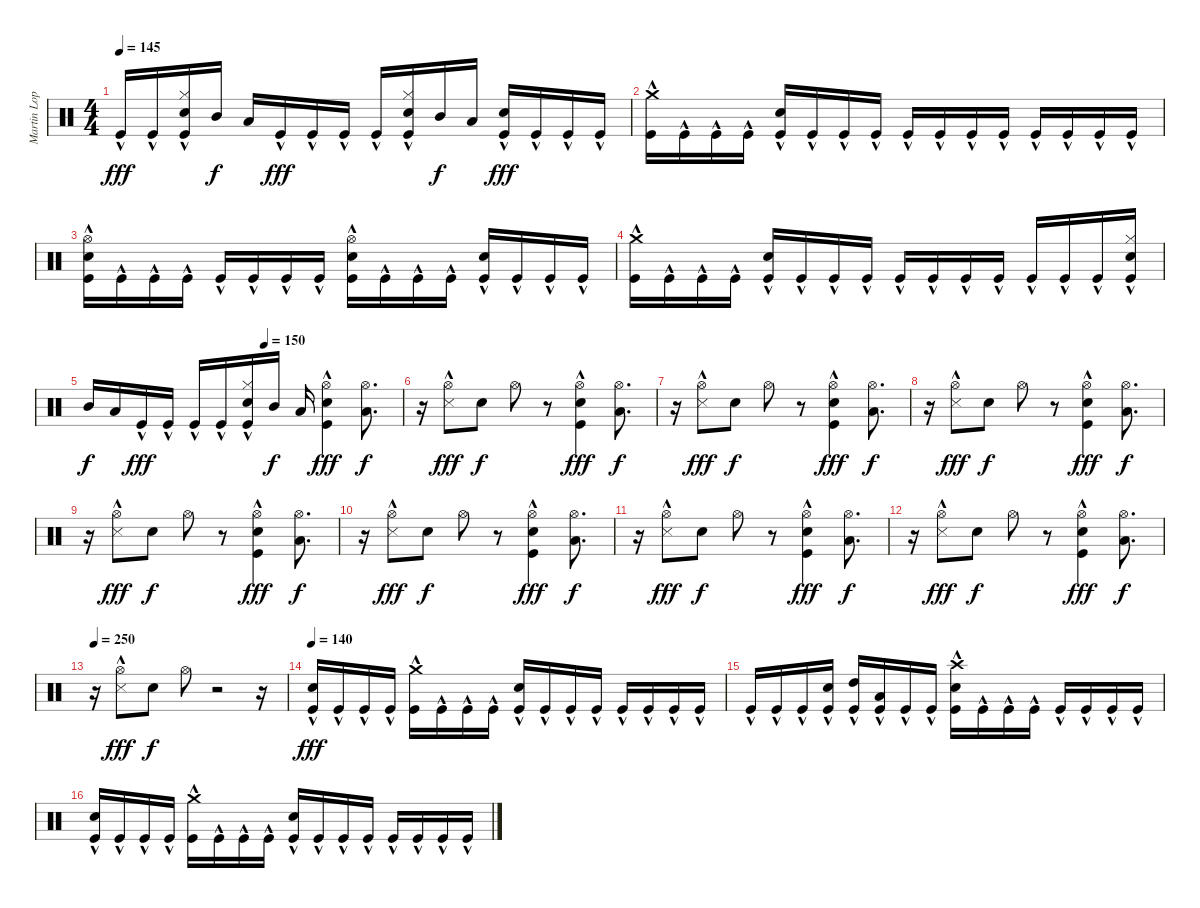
\track ("Martin Lopez" "Martin Lop") {instrument percussion}
\staff {score}
\articulation defaults
\ts (4 4)
\tempo 145
\clef neutral
\ks c "Kick (hit)"{hac}.16{dy fff} "Kick (hit)"{hac}.16
("Hi-Hat (closed)" "Electric Snare (hit)" "Kick (hit)"{hac}).16 "Mid Tom (hit)".16{dy f} "Low Tom (hit)".16 "Kick (hit)"{hac}.16{dy fff} "Kick (hit)"{hac}.16 "Kick (hit)"{hac}.16 "Kick (hit)"{hac}.16 ("Hi-Hat (closed)" "Electric Snare (hit)" "Kick (hit)"{hac}).16 "Mid Tom (hit)".16{dy f} "Low Tom (hit)".16 ("Electric Snare (hit)" "Kick (hit)"{hac}).16{dy fff} "Kick (hit)"{hac}.16 "Kick (hit)"{hac}.16 "Kick (hit)"{hac}.16 |
("Crash medium (hit)" "Kick (hit)"{hac}).16 "Kick (hit)"{hac}.16 "Kick (hit)"{hac}.16 "Kick (hit)"{hac}.16 ("Electric Snare (hit)" "Kick (hit)"{hac}).16 "Kick (hit)"{hac}.16 "Kick (hit)"{hac}.16 "Kick (hit)"{hac}.16 "Kick (hit)"{hac}.16 "Kick (hit)"{hac}.16 "Kick (hit)"{hac}.16 "Kick (hit)"{hac}.16 "Kick (hit)"{hac}.16 "Kick (hit)"{hac}.16 "Kick (hit)"{hac}.16 "Kick (hit)"{hac}.16 |
("Hi-Hat (open)" "Electric Snare (hit)" "Kick (hit)"{hac}).16 "Kick (hit)"{hac}.16 "Kick (hit)"{hac}.16 "Kick (hit)"{hac}.16 "Kick (hit)"{hac}.16 "Kick (hit)"{hac}.16 "Kick (hit)"{hac}.16 "Kick (hit)"{hac}.16 ("Hi-Hat (open)" "Electric Snare (hit)" "Kick (hit)"{hac}).16 "Kick (hit)"{hac}.16 "Kick (hit)"{hac}.16 "Kick (hit)"{hac}.16 ("Electric Snare (hit)" "Kick (hit)"{hac}).16 "Kick (hit)"{hac}.16 "Kick (hit)"{hac}.16 "Kick (hit)"{hac}.16 |
("Crash medium (hit)" "Kick (hit)"{hac}).16 "Kick (hit)"{hac}.16 "Kick (hit)"{hac}.16 "Kick (hit)"{hac}.16 ("Electric Snare (hit)" "Kick (hit)"{hac}).16 "Kick (hit)"{hac}.16 "Kick (hit)"{hac}.16 "Kick (hit)"{hac}.16 "Kick (hit)"{hac}.16 "Kick (hit)"{hac}.16 "Kick (hit)"{hac}.16 "Kick (hit)"{hac}.16 "Kick (hit)"{hac}.16 "Kick (hit)"{hac}.16 "Kick (hit)"{hac}.16 ("Hi-Hat (closed)" "Electric Snare (hit)" "Kick (hit)"{hac}).16 |
\tempo (150 0.5625)
"Mid Tom (hit)".16{dy f} "Low Tom (hit)".16 "Kick (hit)"{hac}.16{dy fff} "Kick (hit)"{hac}.16 "Kick (hit)"{hac}.16 "Kick (hit)"{hac}.16 ("Hi-Hat (closed)" "Electric Snare (hit)" "Kick (hit)"{hac}).16 "Mid Tom (hit)".16{dy f} "Low Tom (hit)".16 ("Hi-Hat (open)" "Electric Snare (hit)" "Kick (hit)"{hac}).4{dy fff} ("Hi-Hat (open)" "Low Tom (hit)").8{d dy f} |
r.16 ("Hi-Hat (open)"{hac} "Snare (side stick) 3"{hac}).8{dy fff} "Electric Snare (hit)".8{dy f} "Hi-Hat (open)".8 r.8 ("Hi-Hat (open)" "Electric Snare (hit)" "Kick (hit)"{hac}).4{dy fff} ("Hi-Hat (open)" "Low Tom (hit)").8{d dy f} |
r.16 ("Hi-Hat (open)"{hac} "Snare (side stick) 3"{hac}).8{dy fff} "Electric Snare (hit)".8{dy f} "Hi-Hat (open)".8 r.8 ("Hi-Hat (open)" "Electric Snare (hit)" "Kick (hit)"{hac}).4{dy fff} ("Hi-Hat (open)" "Low Tom (hit)").8{d dy f} |
r.16 ("Hi-Hat (open)"{hac} "Snare (side stick) 3"{hac}).8{dy fff} "Electric Snare (hit)".8{dy f} "Hi-Hat (open)".8 r.8 ("Hi-Hat (open)" "Electric Snare (hit)" "Kick (hit)"{hac}).4{dy fff} ("Hi-Hat (open)" "Low Tom (hit)").8{d dy f} |
r.16 ("Hi-Hat (open)"{hac} "Snare (side stick) 3"{hac}).8{dy fff} "Electric Snare (hit)".8{dy f} "Hi-Hat (open)".8 r.8 ("Hi-Hat (open)" "Electric Snare (hit)" "Kick (hit)"{hac}).4{dy fff} ("Hi-Hat (open)" "Low Tom (hit)").8{d dy f} |
r.16 ("Hi-Hat (open)"{hac} "Snare (side stick) 3"{hac}).8{dy fff} "Electric Snare (hit)".8{dy f} "Hi-Hat (open)".8 r.8 ("Hi-Hat (open)" "Electric Snare (hit)" "Kick (hit)"{hac}).4{dy fff} ("Hi-Hat (open)" "Low Tom (hit)").8{d dy f} |
r.16 ("Hi-Hat (open)"{hac} "Snare (side stick) 3"{hac}).8{dy fff} "Electric Snare (hit)".8{dy f} "Hi-Hat (open)".8 r.8 ("Hi-Hat (open)" "Electric Snare (hit)" "Kick (hit)"{hac}).4{dy fff} ("Hi-Hat (open)" "Low Tom (hit)").8{d dy f} |
r.16 ("Hi-Hat (open)"{hac} "Snare (side stick) 3"{hac}).8{dy fff} "Electric Snare (hit)".8{dy f} "Hi-Hat (open)".8 r.8 ("Hi-Hat (open)" "Electric Snare (hit)" "Kick (hit)"{hac}).4{dy fff} ("Hi-Hat (open)" "Low Tom (hit)").8{d dy f} |
\tempo 250
r.16 ("Hi-Hat (open)"{hac} "Snare (side stick) 3"{hac}).8{dy fff} "Electric Snare (hit)".8{dy f} "Hi-Hat (open)".8 r.2 r.16 |
\tempo 155
\tempo 140
("Electric Snare (hit)" "Kick (hit)"{hac}).16{dy fff} "Kick (hit)"{hac}.16 "Kick (hit)"{hac}.16 "Kick (hit)"{hac}.16 ("Crash medium (hit)" "Kick (hit)"{hac}).16 "Kick (hit)"{hac}.16 "Kick (hit)"{hac}.16 "Kick (hit)"{hac}.16 ("Electric Snare (hit)" "Kick (hit)"{hac}).16 "Kick (hit)"{hac}.16 "Kick (hit)"{hac}.16 "Kick (hit)"{hac}.16 "Kick (hit)"{hac}.16 "Kick (hit)"{hac}.16 "Kick (hit)"{hac}.16 "Kick (hit)"{hac}.16 |
"Kick (hit)"{hac}.16 "Kick (hit)"{hac}.16 "Kick (hit)"{hac}.16 ("Electric Snare (hit)" "Kick (hit)"{hac}).16 ("High Tom (hit)" "Kick (hit)"{hac}).16 ("Low Tom (hit)" "Kick (hit)"{hac}).16 "Kick (hit)"{hac}.16 "Kick (hit)"{hac}.16 ("Crash high (hit)" "Electric Snare (hit)" "Kick (hit)"{hac}).16 "Kick (hit)"{hac}.16 "Kick (hit)"{hac}.16 "Kick (hit)"{hac}.16 "Kick (hit)"{hac}.16 "Kick (hit)"{hac}.16 "Kick (hit)"{hac}.16 "Kick (hit)"{hac}.16 |
("Electric Snare (hit)" "Kick (hit)"{hac}).16 "Kick (hit)"{hac}.16 "Kick (hit)"{hac}.16 "Kick (hit)"{hac}.16 ("Crash medium (hit)" "Kick (hit)"{hac}).16 "Kick (hit)"{hac}.16 "Kick (hit)"{hac}.16 "Kick (hit)"{hac}.16 ("Electric Snare (hit)" "Kick (hit)"{hac}).16 "Kick (hit)"{hac}.16 "Kick (hit)"{hac}.16 "Kick (hit)"{hac}.16 "Kick (hit)"{hac}.16 "Kick (hit)"{hac}.16 "Kick (hit)"{hac}.16 "Kick (hit)"{hac}.16
